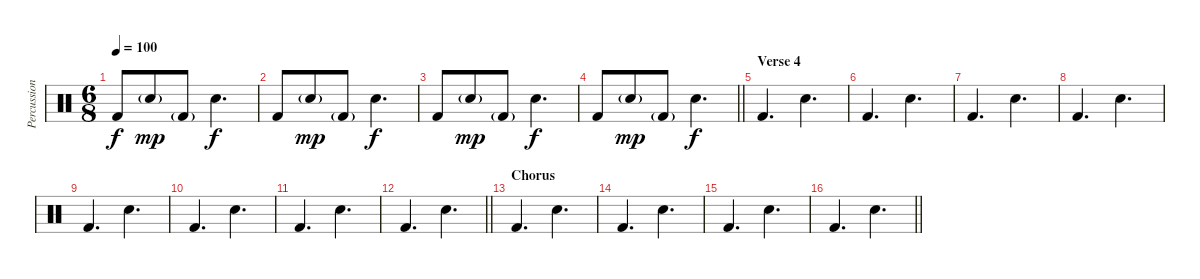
\track ("Percussion" "Percussion") {instrument percussion}
\staff {score}
\articulation defaults
\ts (6 8)
\tempo 100
\clef neutral
\ks c "Kick (hit) 2".8{dy f} "Snare (hit) 2"{g}.8{dy mp} "Kick (hit) 2"{g}.8 "Snare (hit) 2".4{d dy f}
|
"Kick (hit) 2".8 "Snare (hit) 2"{g}.8{dy mp} "Kick (hit) 2"{g}.8 "Snare (hit) 2".4{d dy f} |
"Kick (hit) 2".8 "Snare (hit) 2"{g}.8{dy mp} "Kick (hit) 2"{g}.8 "Snare (hit) 2".4{d dy f} |
\barLineRight lightlight "Kick (hit) 2".8 "Snare (hit) 2"{g}.8{dy mp} "Kick (hit) 2"{g}.8 "Snare (hit) 2".4{d dy f}
|
\section ("" "Verse 4")
"Kick (hit) 2".4{d} "Snare (hit) 2".4{d} |
"Kick (hit) 2".4{d} "Snare (hit) 2".4{d} |
"Kick (hit) 2".4{d} "Snare (hit) 2".4{d} |
"Kick (hit) 2".4{d} "Snare (hit) 2".4{d} |
"Kick (hit) 2".4{d} "Snare (hit) 2".4{d} |
"Kick (hit) 2".4{d} "Snare (hit) 2".4{d} |
"Kick (hit) 2".4{d} "Snare (hit) 2".4{d} |
\barLineRight lightlight "Kick (hit) 2".4{d} "Snare (hit) 2".4{d}
|
\section ("" "Chorus")
"Kick (hit) 2".4{d} "Snare (hit) 2".4{d} |
"Kick (hit) 2".4{d} "Snare (hit) 2".4{d} |
"Kick (hit) 2".4{d} "Snare (hit) 2".4{d} |
\barLineRight lightlight "Kick (hit) 2".4{d} "Snare (hit) 2".4{d}
